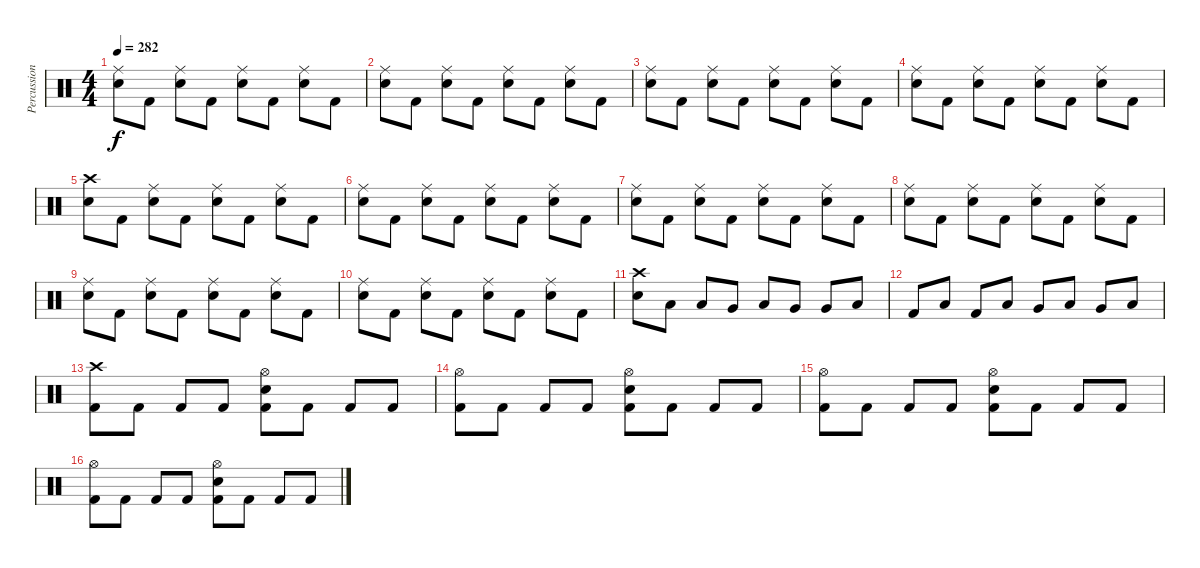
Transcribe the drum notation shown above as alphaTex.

\track ("Percussion" "Percussion") {instrument percussion}
\staff {score}
\articulation defaults
\ts (4 4)
\tempo 282
\clef neutral
\ks c
("Snare (hit) 2" "Ride (middle)").8{dy f} "Kick (hit) 2".8 ("Snare (hit) 2" "Ride (middle)").8 "Kick (hit) 2".8 ("Snare (hit) 2" "Ride (middle)").8 "Kick (hit) 2".8 ("Snare (hit) 2" "Ride (middle)").8 "Kick (hit) 2".8 |
("Snare (hit) 2" "Ride (middle)").8 "Kick (hit) 2".8 ("Snare (hit) 2" "Ride (middle)").8 "Kick (hit) 2".8 ("Snare (hit) 2" "Ride (middle)").8 "Kick (hit) 2".8 ("Snare (hit) 2" "Ride (middle)").8 "Kick (hit) 2".8 |
("Snare (hit) 2" "Ride (middle)").8 "Kick (hit) 2".8 ("Snare (hit) 2" "Ride (middle)").8 "Kick (hit) 2".8 ("Snare (hit) 2" "Ride (middle)").8 "Kick (hit) 2".8 ("Snare (hit) 2" "Ride (middle)").8 "Kick (hit) 2".8 |
("Snare (hit) 2" "Ride (middle)").8 "Kick (hit) 2".8 ("Snare (hit) 2" "Ride (middle)").8 "Kick (hit) 2".8 ("Snare (hit) 2" "Ride (middle)").8 "Kick (hit) 2".8 ("Snare (hit) 2" "Ride (middle)").8 "Kick (hit) 2".8 |
("Snare (hit) 2" "Crash high (hit)").8 "Kick (hit) 2".8 ("Snare (hit) 2" "Ride (middle)").8 "Kick (hit) 2".8 ("Snare (hit) 2" "Ride (middle)").8 "Kick (hit) 2".8 ("Snare (hit) 2" "Ride (middle)").8 "Kick (hit) 2".8 |
("Snare (hit) 2" "Ride (middle)").8 "Kick (hit) 2".8 ("Snare (hit) 2" "Ride (middle)").8 "Kick (hit) 2".8 ("Snare (hit) 2" "Ride (middle)").8 "Kick (hit) 2".8 ("Snare (hit) 2" "Ride (middle)").8 "Kick (hit) 2".8 |
("Snare (hit) 2" "Ride (middle)").8 "Kick (hit) 2".8 ("Snare (hit) 2" "Ride (middle)").8 "Kick (hit) 2".8 ("Snare (hit) 2" "Ride (middle)").8 "Kick (hit) 2".8 ("Snare (hit) 2" "Ride (middle)").8 "Kick (hit) 2".8 |
("Snare (hit) 2" "Ride (middle)").8 "Kick (hit) 2".8 ("Snare (hit) 2" "Ride (middle)").8 "Kick (hit) 2".8 ("Snare (hit) 2" "Ride (middle)").8 "Kick (hit) 2".8 ("Snare (hit) 2" "Ride (middle)").8 "Kick (hit) 2".8 |
("Snare (hit) 2" "Ride (middle)").8 "Kick (hit) 2".8 ("Snare (hit) 2" "Ride (middle)").8 "Kick (hit) 2".8 ("Snare (hit) 2" "Ride (middle)").8 "Kick (hit) 2".8 ("Snare (hit) 2" "Ride (middle)").8 "Kick (hit) 2".8 |
("Snare (hit) 2" "Ride (middle)").8 "Kick (hit) 2".8 ("Snare (hit) 2" "Ride (middle)").8 "Kick (hit) 2".8 ("Snare (hit) 2" "Ride (middle)").8 "Kick (hit) 2".8 ("Snare (hit) 2" "Ride (middle)").8 "Kick (hit) 2".8 |
("Snare (hit) 2" "Crash high (hit)").8 "Low Tom (hit)".8 "Low Tom (hit)".8 "Very Low Tom (hit)".8 "Low Floor Tom (hit)".8 "Very Low Tom (hit)".8 "Very Low Tom (hit)".8 "Low Tom (hit)".8 |
"Kick (hit) 2".8 "Low Tom (hit)".8 "Kick (hit) 2".8 "Low Tom (hit)".8 "Very Low Tom (hit)".8 "Low Tom (hit)".8 "Very Low Tom (hit)".8 "Low Floor Tom (hit)".8 |
("Kick (hit) 2" "Crash high (hit)").8 "Kick (hit) 2".8 "Kick (hit) 2".8 "Kick (hit) 2".8 ("Kick (hit) 2" "Snare (hit) 2" "Hi-Hat (open)").8 "Kick (hit) 2".8 "Kick (hit) 2".8 "Kick (hit) 2".8 |
("Kick (hit) 2" "Hi-Hat (open)").8 "Kick (hit) 2".8 "Kick (hit) 2".8 "Kick (hit) 2".8 ("Kick (hit) 2" "Snare (hit) 2" "Hi-Hat (open)").8 "Kick (hit) 2".8 "Kick (hit) 2".8 "Kick (hit) 2".8 |
("Kick (hit) 2" "Hi-Hat (open)").8 "Kick (hit) 2".8 "Kick (hit) 2".8 "Kick (hit) 2".8 ("Kick (hit) 2" "Snare (hit) 2" "Hi-Hat (open)").8 "Kick (hit) 2".8 "Kick (hit) 2".8 "Kick (hit) 2".8 |
("Kick (hit) 2" "Hi-Hat (open)").8 "Kick (hit) 2".8 "Kick (hit) 2".8 "Kick (hit) 2".8 ("Kick (hit) 2" "Snare (hit) 2" "Hi-Hat (open)").8 "Kick (hit) 2".8 "Kick (hit) 2".8 "Kick (hit) 2".8
